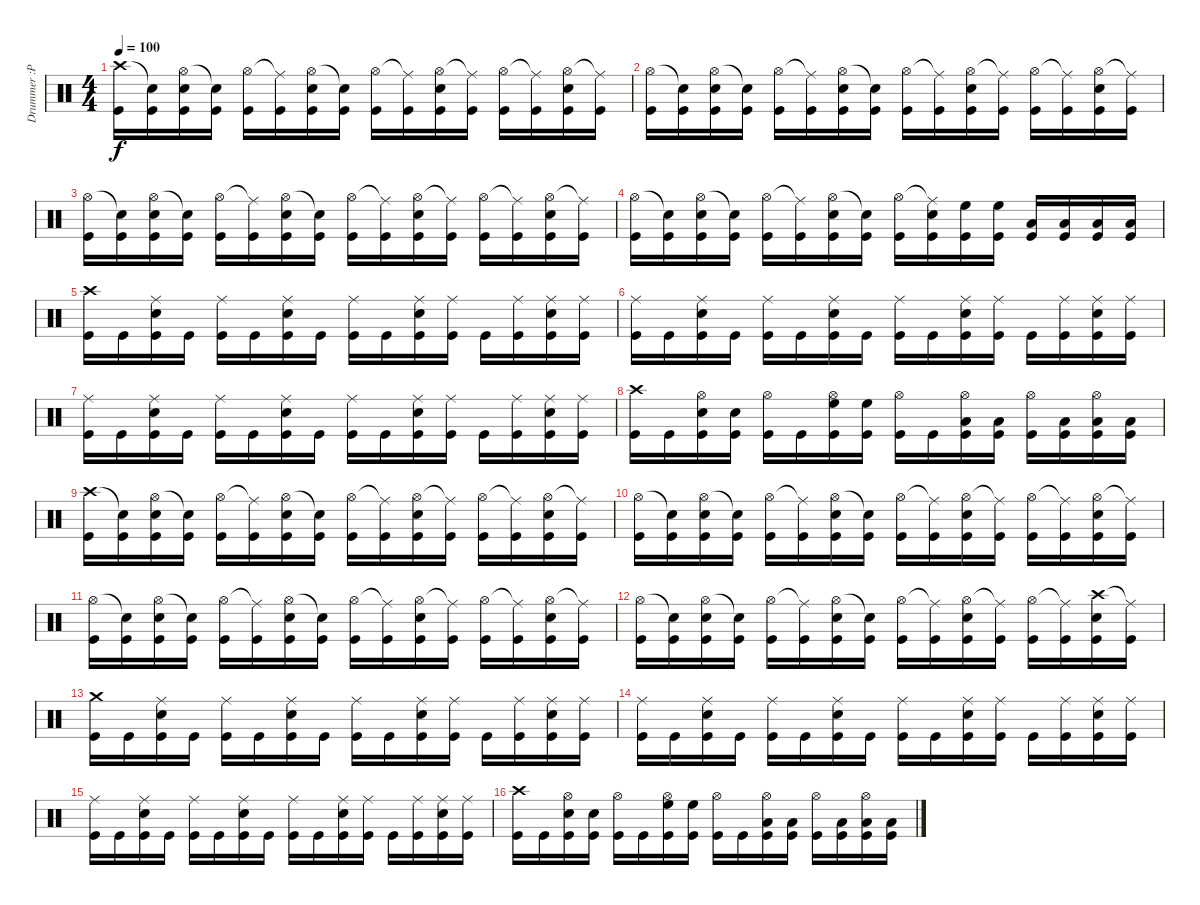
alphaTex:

\track ("Drummer :P" "Drummer :P") {instrument percussion}
\staff {score}
\articulation defaults
\ts (4 4)
\tempo 100
\clef neutral
\ks c
("Crash high (hit)" "Kick (hit)").16{dy f} ("Snare (hit)"{t} "Kick (hit)").16 ("Hi-Hat (open)" "Electric Snare (hit)" "Kick (hit)").16 ("Snare (hit)"{t} "Kick (hit)").16 ("Hi-Hat (open)" "Kick (hit)").16 ("Ride (middle)"{t} "Kick (hit)").16 ("Hi-Hat (open)" "Electric Snare (hit)" "Kick (hit)").16 ("Snare (hit)"{t} "Kick (hit)").16 ("Hi-Hat (open)" "Kick (hit)").16 ("Ride (middle)"{t} "Kick (hit)").16 ("Hi-Hat (open)" "Electric Snare (hit)" "Kick (hit)").16 ("Ride (middle)"{t} "Kick (hit)").16 ("Hi-Hat (open)" "Kick (hit)").16 ("Ride (middle)"{t} "Kick (hit)").16 ("Hi-Hat (open)" "Electric Snare (hit)" "Kick (hit)").16 ("Ride (middle)"{t} "Kick (hit)").16 |
("Hi-Hat (open)" "Kick (hit)").16 ("Snare (hit)"{t} "Kick (hit)").16 ("Hi-Hat (open)" "Electric Snare (hit)" "Kick (hit)").16 ("Snare (hit)"{t} "Kick (hit)").16 ("Hi-Hat (open)" "Kick (hit)").16 ("Ride (middle)"{t} "Kick (hit)").16 ("Hi-Hat (open)" "Electric Snare (hit)" "Kick (hit)").16 ("Snare (hit)"{t} "Kick (hit)").16 ("Hi-Hat (open)" "Kick (hit)").16 ("Ride (middle)"{t} "Kick (hit)").16 ("Hi-Hat (open)" "Electric Snare (hit)" "Kick (hit)").16 ("Ride (middle)"{t} "Kick (hit)").16 ("Hi-Hat (open)" "Kick (hit)").16 ("Ride (middle)"{t} "Kick (hit)").16 ("Hi-Hat (open)" "Electric Snare (hit)" "Kick (hit)").16 ("Ride (middle)"{t} "Kick (hit)").16 |
("Hi-Hat (open)" "Kick (hit)").16 ("Snare (hit)"{t} "Kick (hit)").16 ("Hi-Hat (open)" "Electric Snare (hit)" "Kick (hit)").16 ("Snare (hit)"{t} "Kick (hit)").16 ("Hi-Hat (open)" "Kick (hit)").16 ("Ride (middle)"{t} "Kick (hit)").16 ("Hi-Hat (open)" "Electric Snare (hit)" "Kick (hit)").16 ("Snare (hit)"{t} "Kick (hit)").16 ("Hi-Hat (open)" "Kick (hit)").16 ("Ride (middle)"{t} "Kick (hit)").16 ("Hi-Hat (open)" "Electric Snare (hit)" "Kick (hit)").16 ("Ride (middle)"{t} "Kick (hit)").16 ("Hi-Hat (open)" "Kick (hit)").16 ("Ride (middle)"{t} "Kick (hit)").16 ("Hi-Hat (open)" "Electric Snare (hit)" "Kick (hit)").16 ("Ride (middle)"{t} "Kick (hit)").16 |
("Hi-Hat (open)" "Kick (hit)").16 ("Snare (hit)"{t} "Kick (hit)").16 ("Hi-Hat (open)" "Electric Snare (hit)" "Kick (hit)").16 ("Snare (hit)"{t} "Kick (hit)").16 ("Hi-Hat (open)" "Kick (hit)").16 ("Ride (middle)"{t} "Kick (hit)").16 ("Hi-Hat (open)" "Electric Snare (hit)" "Kick (hit)").16 ("Snare (hit)"{t} "Kick (hit)").16 ("Hi-Hat (open)" "Kick (hit)").16 ("Ride (middle)"{t} "Electric Snare (hit)" "Kick (hit)").16 ("High Floor Tom (hit)" "Kick (hit)").16 ("High Floor Tom (hit)" "Kick (hit)").16 ("Low Tom (hit)" "Kick (hit)").16 ("Low Tom (hit)" "Kick (hit)").16 ("Low Floor Tom (hit)" "Kick (hit)").16 ("Low Floor Tom (hit)" "Kick (hit)").16 |
("Crash high (hit)" "Kick (hit)").16 "Kick (hit)".16 ("Ride (middle)" "Electric Snare (hit)" "Kick (hit)").16 "Kick (hit)".16 ("Ride (middle)" "Kick (hit)").16 "Kick (hit)".16 ("Ride (middle)" "Electric Snare (hit)" "Kick (hit)").16 "Kick (hit)".16 ("Ride (middle)" "Kick (hit)").16 "Kick (hit)".16 ("Ride (middle)" "Electric Snare (hit)" "Kick (hit)").16 ("Ride (middle)" "Kick (hit)").16 "Kick (hit)".16 ("Ride (middle)" "Kick (hit)").16 ("Ride (middle)" "Electric Snare (hit)" "Kick (hit)").16 ("Ride (middle)" "Kick (hit)").16 |
("Ride (middle)" "Kick (hit)").16 "Kick (hit)".16 ("Ride (middle)" "Electric Snare (hit)" "Kick (hit)").16 "Kick (hit)".16 ("Ride (middle)" "Kick (hit)").16 "Kick (hit)".16 ("Ride (middle)" "Electric Snare (hit)" "Kick (hit)").16 "Kick (hit)".16 ("Ride (middle)" "Kick (hit)").16 "Kick (hit)".16 ("Ride (middle)" "Electric Snare (hit)" "Kick (hit)").16 ("Ride (middle)" "Kick (hit)").16 "Kick (hit)".16 ("Ride (middle)" "Kick (hit)").16 ("Ride (middle)" "Electric Snare (hit)" "Kick (hit)").16 ("Ride (middle)" "Kick (hit)").16 |
("Ride (middle)" "Kick (hit)").16 "Kick (hit)".16 ("Ride (middle)" "Electric Snare (hit)" "Kick (hit)").16 "Kick (hit)".16 ("Ride (middle)" "Kick (hit)").16 "Kick (hit)".16 ("Ride (middle)" "Electric Snare (hit)" "Kick (hit)").16 "Kick (hit)".16 ("Ride (middle)" "Kick (hit)").16 "Kick (hit)".16 ("Ride (middle)" "Electric Snare (hit)" "Kick (hit)").16 ("Ride (middle)" "Kick (hit)").16 "Kick (hit)".16 ("Ride (middle)" "Kick (hit)").16 ("Ride (middle)" "Electric Snare (hit)" "Kick (hit)").16 ("Ride (middle)" "Kick (hit)").16 |
("Crash high (hit)" "Kick (hit)").16 "Kick (hit)".16 ("Hi-Hat (open)" "Electric Snare (hit)" "Kick (hit)").16 ("Electric Snare (hit)" "Kick (hit)").16 ("Hi-Hat (open)" "Kick (hit)").16 "Kick (hit)".16 ("High Floor Tom (hit)" "Hi-Hat (open)" "Kick (hit)").16 ("High Floor Tom (hit)" "Kick (hit)").16 ("Hi-Hat (open)" "Kick (hit)").16 "Kick (hit)".16 ("Low Tom (hit)" "Hi-Hat (open)" "Kick (hit)").16 ("Low Tom (hit)" "Kick (hit)").16 ("Hi-Hat (open)" "Kick (hit)").16 ("Low Floor Tom (hit)" "Kick (hit)").16 ("Low Floor Tom (hit)" "Hi-Hat (open)" "Kick (hit)").16 ("Low Floor Tom (hit)" "Kick (hit)").16 |
("Crash high (hit)" "Kick (hit)").16 ("Snare (hit)"{t} "Kick (hit)").16 ("Hi-Hat (open)" "Electric Snare (hit)" "Kick (hit)").16 ("Snare (hit)"{t} "Kick (hit)").16 ("Hi-Hat (open)" "Kick (hit)").16 ("Ride (middle)"{t} "Kick (hit)").16 ("Hi-Hat (open)" "Electric Snare (hit)" "Kick (hit)").16 ("Snare (hit)"{t} "Kick (hit)").16 ("Hi-Hat (open)" "Kick (hit)").16 ("Ride (middle)"{t} "Kick (hit)").16 ("Hi-Hat (open)" "Electric Snare (hit)" "Kick (hit)").16 ("Ride (middle)"{t} "Kick (hit)").16 ("Hi-Hat (open)" "Kick (hit)").16 ("Ride (middle)"{t} "Kick (hit)").16 ("Hi-Hat (open)" "Electric Snare (hit)" "Kick (hit)").16 ("Ride (middle)"{t} "Kick (hit)").16 |
("Hi-Hat (open)" "Kick (hit)").16 ("Snare (hit)"{t} "Kick (hit)").16 ("Hi-Hat (open)" "Electric Snare (hit)" "Kick (hit)").16 ("Snare (hit)"{t} "Kick (hit)").16 ("Hi-Hat (open)" "Kick (hit)").16 ("Ride (middle)"{t} "Kick (hit)").16 ("Hi-Hat (open)" "Electric Snare (hit)" "Kick (hit)").16 ("Snare (hit)"{t} "Kick (hit)").16 ("Hi-Hat (open)" "Kick (hit)").16 ("Ride (middle)"{t} "Kick (hit)").16 ("Hi-Hat (open)" "Electric Snare (hit)" "Kick (hit)").16 ("Ride (middle)"{t} "Kick (hit)").16 ("Hi-Hat (open)" "Kick (hit)").16 ("Ride (middle)"{t} "Kick (hit)").16 ("Hi-Hat (open)" "Electric Snare (hit)" "Kick (hit)").16 ("Ride (middle)"{t} "Kick (hit)").16 |
("Hi-Hat (open)" "Kick (hit)").16 ("Snare (hit)"{t} "Kick (hit)").16 ("Hi-Hat (open)" "Electric Snare (hit)" "Kick (hit)").16 ("Snare (hit)"{t} "Kick (hit)").16 ("Hi-Hat (open)" "Kick (hit)").16 ("Ride (middle)"{t} "Kick (hit)").16 ("Hi-Hat (open)" "Electric Snare (hit)" "Kick (hit)").16 ("Snare (hit)"{t} "Kick (hit)").16 ("Hi-Hat (open)" "Kick (hit)").16 ("Ride (middle)"{t} "Kick (hit)").16 ("Hi-Hat (open)" "Electric Snare (hit)" "Kick (hit)").16 ("Ride (middle)"{t} "Kick (hit)").16 ("Hi-Hat (open)" "Kick (hit)").16 ("Ride (middle)"{t} "Kick (hit)").16 ("Hi-Hat (open)" "Electric Snare (hit)" "Kick (hit)").16 ("Ride (middle)"{t} "Kick (hit)").16 |
("Hi-Hat (open)" "Kick (hit)").16 ("Snare (hit)"{t} "Kick (hit)").16 ("Hi-Hat (open)" "Electric Snare (hit)" "Kick (hit)").16 ("Snare (hit)"{t} "Kick (hit)").16 ("Hi-Hat (open)" "Kick (hit)").16 ("Ride (middle)"{t} "Kick (hit)").16 ("Hi-Hat (open)" "Electric Snare (hit)" "Kick (hit)").16 ("Snare (hit)"{t} "Kick (hit)").16 ("Hi-Hat (open)" "Kick (hit)").16 ("Ride (middle)"{t} "Kick (hit)").16 ("Hi-Hat (open)" "Electric Snare (hit)" "Kick (hit)").16 ("Ride (middle)"{t} "Kick (hit)").16 ("Hi-Hat (open)" "Kick (hit)").16 ("Ride (middle)"{t} "Kick (hit)").16 ("Crash high (hit)" "Electric Snare (hit)" "Kick (hit)").16 ("Ride (middle)"{t} "Kick (hit)").16 |
("Crash medium (hit)" "Kick (hit)").16 "Kick (hit)".16 ("Ride (middle)" "Electric Snare (hit)" "Kick (hit)").16 "Kick (hit)".16 ("Ride (middle)" "Kick (hit)").16 "Kick (hit)".16 ("Ride (middle)" "Electric Snare (hit)" "Kick (hit)").16 "Kick (hit)".16 ("Ride (middle)" "Kick (hit)").16 "Kick (hit)".16 ("Ride (middle)" "Electric Snare (hit)" "Kick (hit)").16 ("Ride (middle)" "Kick (hit)").16 "Kick (hit)".16 ("Ride (middle)" "Kick (hit)").16 ("Ride (middle)" "Electric Snare (hit)" "Kick (hit)").16 ("Ride (middle)" "Kick (hit)").16 |
("Ride (middle)" "Kick (hit)").16 "Kick (hit)".16 ("Ride (middle)" "Electric Snare (hit)" "Kick (hit)").16 "Kick (hit)".16 ("Ride (middle)" "Kick (hit)").16 "Kick (hit)".16 ("Ride (middle)" "Electric Snare (hit)" "Kick (hit)").16 "Kick (hit)".16 ("Ride (middle)" "Kick (hit)").16 "Kick (hit)".16 ("Ride (middle)" "Electric Snare (hit)" "Kick (hit)").16 ("Ride (middle)" "Kick (hit)").16 "Kick (hit)".16 ("Ride (middle)" "Kick (hit)").16 ("Ride (middle)" "Electric Snare (hit)" "Kick (hit)").16 ("Ride (middle)" "Kick (hit)").16 |
("Ride (middle)" "Kick (hit)").16 "Kick (hit)".16 ("Ride (middle)" "Electric Snare (hit)" "Kick (hit)").16 "Kick (hit)".16 ("Ride (middle)" "Kick (hit)").16 "Kick (hit)".16 ("Ride (middle)" "Electric Snare (hit)" "Kick (hit)").16 "Kick (hit)".16 ("Ride (middle)" "Kick (hit)").16 "Kick (hit)".16 ("Ride (middle)" "Electric Snare (hit)" "Kick (hit)").16 ("Ride (middle)" "Kick (hit)").16 "Kick (hit)".16 ("Ride (middle)" "Kick (hit)").16 ("Ride (middle)" "Electric Snare (hit)" "Kick (hit)").16 ("Ride (middle)" "Kick (hit)").16 |
("Crash high (hit)" "Kick (hit)").16 "Kick (hit)".16 ("Hi-Hat (open)" "Electric Snare (hit)" "Kick (hit)").16 ("Electric Snare (hit)" "Kick (hit)").16 ("Hi-Hat (open)" "Kick (hit)").16 "Kick (hit)".16 ("High Floor Tom (hit)" "Hi-Hat (open)" "Kick (hit)").16 ("High Floor Tom (hit)" "Kick (hit)").16 ("Hi-Hat (open)" "Kick (hit)").16 "Kick (hit)".16 ("Low Tom (hit)" "Hi-Hat (open)" "Kick (hit)").16 ("Low Tom (hit)" "Kick (hit)").16 ("Hi-Hat (open)" "Kick (hit)").16 ("Low Floor Tom (hit)" "Kick (hit)").16 ("Low Floor Tom (hit)" "Hi-Hat (open)" "Kick (hit)").16 ("Low Floor Tom (hit)" "Kick (hit)").16
